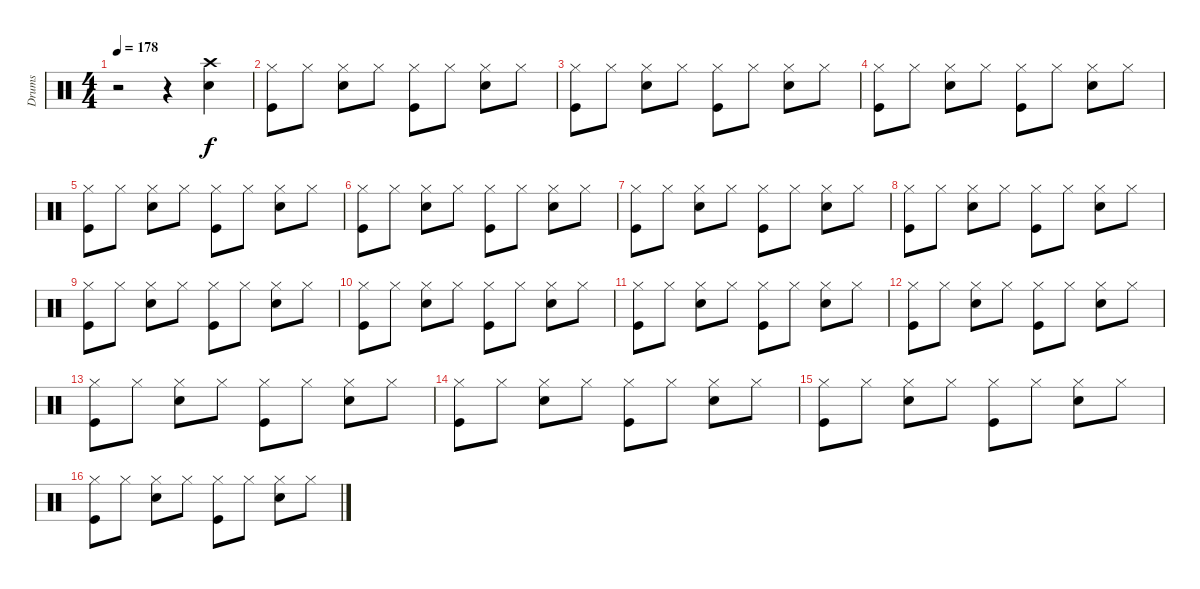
\track ("Drums" "Drums") {instrument percussion}
\staff {score}
\articulation defaults
\ts (4 4)
\tempo 178
\clef neutral
\ks c
r.2{dy f} r.4 ("Crash high (hit)" "Electric Snare (hit)").4 |
("Hi-Hat (closed)" "Kick (hit)").8 "Hi-Hat (closed)".8 ("Hi-Hat (closed)" "Electric Snare (hit)").8 "Hi-Hat (closed)".8 ("Hi-Hat (closed)" "Kick (hit)").8 "Hi-Hat (closed)".8 ("Hi-Hat (closed)" "Electric Snare (hit)").8 "Hi-Hat (closed)".8 |
("Hi-Hat (closed)" "Kick (hit)").8 "Hi-Hat (closed)".8 ("Hi-Hat (closed)" "Electric Snare (hit)").8 "Hi-Hat (closed)".8 ("Hi-Hat (closed)" "Kick (hit)").8 "Hi-Hat (closed)".8 ("Hi-Hat (closed)" "Electric Snare (hit)").8 "Hi-Hat (closed)".8 |
("Hi-Hat (closed)" "Kick (hit)").8 "Hi-Hat (closed)".8 ("Hi-Hat (closed)" "Electric Snare (hit)").8 "Hi-Hat (closed)".8 ("Hi-Hat (closed)" "Kick (hit)").8 "Hi-Hat (closed)".8 ("Hi-Hat (closed)" "Electric Snare (hit)").8 "Hi-Hat (closed)".8 |
("Hi-Hat (closed)" "Kick (hit)").8 "Hi-Hat (closed)".8 ("Hi-Hat (closed)" "Electric Snare (hit)").8 "Hi-Hat (closed)".8 ("Hi-Hat (closed)" "Kick (hit)").8 "Hi-Hat (closed)".8 ("Hi-Hat (closed)" "Electric Snare (hit)").8 "Hi-Hat (closed)".8 |
("Hi-Hat (closed)" "Kick (hit)").8 "Hi-Hat (closed)".8 ("Hi-Hat (closed)" "Electric Snare (hit)").8 "Hi-Hat (closed)".8 ("Hi-Hat (closed)" "Kick (hit)").8 "Hi-Hat (closed)".8 ("Hi-Hat (closed)" "Electric Snare (hit)").8 "Hi-Hat (closed)".8 |
("Hi-Hat (closed)" "Kick (hit)").8 "Hi-Hat (closed)".8 ("Hi-Hat (closed)" "Electric Snare (hit)").8 "Hi-Hat (closed)".8 ("Hi-Hat (closed)" "Kick (hit)").8 "Hi-Hat (closed)".8 ("Hi-Hat (closed)" "Electric Snare (hit)").8 "Hi-Hat (closed)".8 |
("Hi-Hat (closed)" "Kick (hit)").8 "Hi-Hat (closed)".8 ("Hi-Hat (closed)" "Electric Snare (hit)").8 "Hi-Hat (closed)".8 ("Hi-Hat (closed)" "Kick (hit)").8 "Hi-Hat (closed)".8 ("Hi-Hat (closed)" "Electric Snare (hit)").8 "Hi-Hat (closed)".8 |
("Hi-Hat (closed)" "Kick (hit)").8 "Hi-Hat (closed)".8 ("Hi-Hat (closed)" "Electric Snare (hit)").8 "Hi-Hat (closed)".8 ("Hi-Hat (closed)" "Kick (hit)").8 "Hi-Hat (closed)".8 ("Hi-Hat (closed)" "Electric Snare (hit)").8 "Hi-Hat (closed)".8 |
("Hi-Hat (closed)" "Kick (hit)").8 "Hi-Hat (closed)".8 ("Hi-Hat (closed)" "Electric Snare (hit)").8 "Hi-Hat (closed)".8 ("Hi-Hat (closed)" "Kick (hit)").8 "Hi-Hat (closed)".8 ("Hi-Hat (closed)" "Electric Snare (hit)").8 "Hi-Hat (closed)".8 |
("Hi-Hat (closed)" "Kick (hit)").8 "Hi-Hat (closed)".8 ("Hi-Hat (closed)" "Electric Snare (hit)").8 "Hi-Hat (closed)".8 ("Hi-Hat (closed)" "Kick (hit)").8 "Hi-Hat (closed)".8 ("Hi-Hat (closed)" "Electric Snare (hit)").8 "Hi-Hat (closed)".8 |
("Hi-Hat (closed)" "Kick (hit)").8 "Hi-Hat (closed)".8 ("Hi-Hat (closed)" "Electric Snare (hit)").8 "Hi-Hat (closed)".8 ("Hi-Hat (closed)" "Kick (hit)").8 "Hi-Hat (closed)".8 ("Hi-Hat (closed)" "Electric Snare (hit)").8 "Hi-Hat (closed)".8 |
("Hi-Hat (closed)" "Kick (hit)").8 "Hi-Hat (closed)".8 ("Hi-Hat (closed)" "Electric Snare (hit)").8 "Hi-Hat (closed)".8 ("Hi-Hat (closed)" "Kick (hit)").8 "Hi-Hat (closed)".8 ("Hi-Hat (closed)" "Electric Snare (hit)").8 "Hi-Hat (closed)".8 |
("Hi-Hat (closed)" "Kick (hit)").8 "Hi-Hat (closed)".8 ("Hi-Hat (closed)" "Electric Snare (hit)").8 "Hi-Hat (closed)".8 ("Hi-Hat (closed)" "Kick (hit)").8 "Hi-Hat (closed)".8 ("Hi-Hat (closed)" "Electric Snare (hit)").8 "Hi-Hat (closed)".8 |
("Hi-Hat (closed)" "Kick (hit)").8 "Hi-Hat (closed)".8 ("Hi-Hat (closed)" "Electric Snare (hit)").8 "Hi-Hat (closed)".8 ("Hi-Hat (closed)" "Kick (hit)").8 "Hi-Hat (closed)".8 ("Hi-Hat (closed)" "Electric Snare (hit)").8 "Hi-Hat (closed)".8 |
("Hi-Hat (closed)" "Kick (hit)").8 "Hi-Hat (closed)".8 ("Hi-Hat (closed)" "Electric Snare (hit)").8 "Hi-Hat (closed)".8 ("Hi-Hat (closed)" "Kick (hit)").8 "Hi-Hat (closed)".8 ("Hi-Hat (closed)" "Electric Snare (hit)").8 "Hi-Hat (closed)".8
